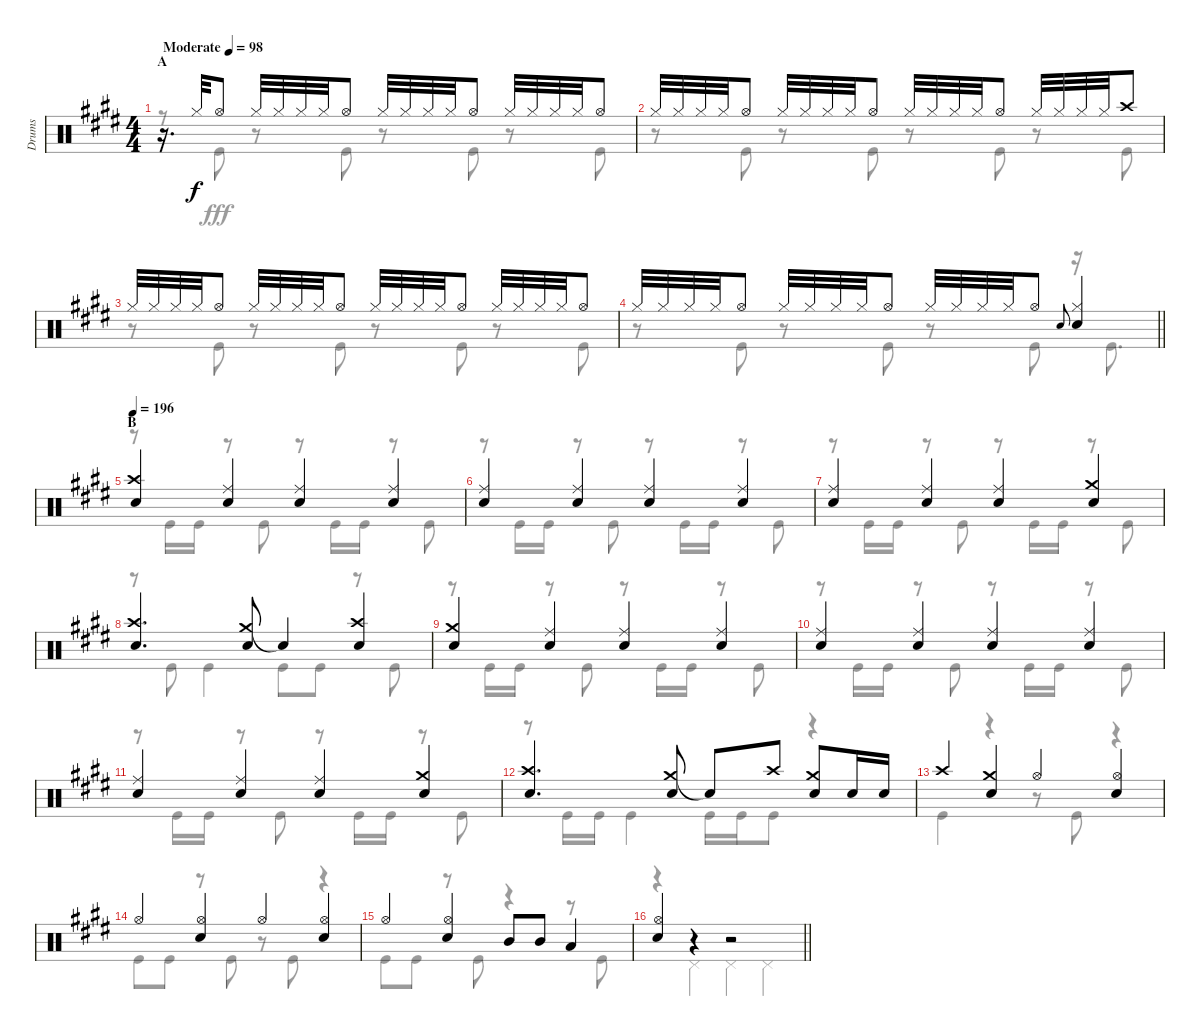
\track ("Drums" "Drums") {instrument percussion}
\staff {score}
\articulation defaults
\voice
\ts (4 4)
\section ("" "A")
\tempo (98 "Moderate")
\clef neutral
\ks e
r.16{d dy f} "Hi-Hat (closed)".32 "Hi-Hat (open)".8 "Hi-Hat (closed)".32 "Hi-Hat (closed)".32 "Hi-Hat (closed)".32 "Hi-Hat (closed)".32 "Hi-Hat (open)".8 "Hi-Hat (closed)".32 "Hi-Hat (closed)".32 "Hi-Hat (closed)".32 "Hi-Hat (closed)".32 "Hi-Hat (open)".8 "Hi-Hat (closed)".32 "Hi-Hat (closed)".32 "Hi-Hat (closed)".32 "Hi-Hat (closed)".32 "Hi-Hat (open)".8 |
"Hi-Hat (closed)".32 "Hi-Hat (closed)".32 "Hi-Hat (closed)".32 "Hi-Hat (closed)".32 "Hi-Hat (open)".8 "Hi-Hat (closed)".32 "Hi-Hat (closed)".32 "Hi-Hat (closed)".32 "Hi-Hat (closed)".32 "Hi-Hat (open)".8 "Hi-Hat (closed)".32 "Hi-Hat (closed)".32 "Hi-Hat (closed)".32 "Hi-Hat (closed)".32 "Hi-Hat (open)".8 "Hi-Hat (closed)".32 "Hi-Hat (closed)".32 "Hi-Hat (closed)".32 "Hi-Hat (closed)".32 "Crash high (hit)".8 |
"Hi-Hat (closed)".32 "Hi-Hat (closed)".32 "Hi-Hat (closed)".32 "Hi-Hat (closed)".32 "Hi-Hat (open)".8 "Hi-Hat (closed)".32 "Hi-Hat (closed)".32 "Hi-Hat (closed)".32 "Hi-Hat (closed)".32 "Hi-Hat (open)".8 "Hi-Hat (closed)".32 "Hi-Hat (closed)".32 "Hi-Hat (closed)".32 "Hi-Hat (closed)".32 "Hi-Hat (open)".8 "Hi-Hat (closed)".32 "Hi-Hat (closed)".32 "Hi-Hat (closed)".32 "Hi-Hat (closed)".32 "Hi-Hat (open)".8 |
\barLineRight lightlight "Hi-Hat (closed)".32 "Hi-Hat (closed)".32 "Hi-Hat (closed)".32 "Hi-Hat (closed)".32 "Hi-Hat (open)".8 "Hi-Hat (closed)".32 "Hi-Hat (closed)".32 "Hi-Hat (closed)".32 "Hi-Hat (closed)".32 "Hi-Hat (open)".8 "Hi-Hat (closed)".32 "Hi-Hat (closed)".32 "Hi-Hat (closed)".32 "Hi-Hat (closed)".32 "Hi-Hat (open)".8 "Snare (hit) 2".8{gr onbeat}
("Hi-Hat (closed)" "Snare (hit) 2").4 |
\section ("" "B")
\tempo 196
("Crash high (hit)" "Snare (hit) 2").4 ("Ride (middle)" "Snare (hit) 2").4 ("Ride (middle)" "Snare (hit) 2").4 ("Ride (middle)" "Snare (hit) 2").4 |
("Ride (middle)" "Snare (hit) 2").4 ("Ride (middle)" "Snare (hit) 2").4 ("Ride (middle)" "Snare (hit) 2").4 ("Ride (middle)" "Snare (hit) 2").4 |
("Ride (middle)" "Snare (hit) 2").4 ("Ride (middle)" "Snare (hit) 2").4 ("Ride (middle)" "Snare (hit) 2").4 ("Crash medium (hit)" "Snare (hit) 2").4 |
("Crash high (hit)" "Snare (hit) 2").4{d} ("Crash medium (hit)" "Snare (hit) 2").8 "Snare (hit)"{t}.4 ("Crash high (hit)" "Snare (hit) 2").4 |
("Crash medium (hit)" "Snare (hit) 2").4 ("Ride (middle)" "Snare (hit) 2").4 ("Ride (middle)" "Snare (hit) 2").4 ("Ride (middle)" "Snare (hit) 2").4 |
("Ride (middle)" "Snare (hit) 2").4 ("Ride (middle)" "Snare (hit) 2").4 ("Ride (middle)" "Snare (hit) 2").4 ("Ride (middle)" "Snare (hit) 2").4 |
("Ride (middle)" "Snare (hit) 2").4 ("Ride (middle)" "Snare (hit) 2").4 ("Ride (middle)" "Snare (hit) 2").4 ("Crash medium (hit)" "Snare (hit) 2").4 |
("Crash high (hit)" "Snare (hit) 2").4{d} ("Crash medium (hit)" "Snare (hit) 2").8 "Snare (hit)"{t}.8 "Crash high (hit)".8 ("Crash medium (hit)" "Snare (hit) 2").8 "Snare (hit) 2".16 "Snare (hit) 2".16 |
"Crash high (hit)".4 ("Crash medium (hit)" "Snare (hit) 2").4 "Hi-Hat (open)".4 ("Hi-Hat (open)" "Snare (hit) 2").4 |
"Hi-Hat (open)".4 ("Hi-Hat (open)" "Snare (hit) 2").4 "Hi-Hat (open)".4 ("Hi-Hat (open)" "Snare (hit) 2").4 |
"Hi-Hat (open)".4 ("Hi-Hat (open)" "Snare (hit) 2").4 "Mid Tom (hit)".8 "Mid Tom (hit)".8 "Low Tom (hit)".4 |
\barLineRight lightlight
("Hi-Hat (open)" "Snare (hit) 2").4 r.4 r.2
\voice
\clef neutral
\ottava regular
\simile none
\ks e
r.8{dy fff} "Kick (hit)".8 r.8 "Kick (hit)".8 r.8 "Kick (hit)".8 r.8 "Kick (hit)".8 |
r.8 "Kick (hit)".8 r.8 "Kick (hit)".8 r.8 "Kick (hit)".8 r.8 "Kick (hit)".8 |
r.8 "Kick (hit)".8 r.8 "Kick (hit)".8 r.8 "Kick (hit)".8 r.8 "Kick (hit)".8 |
\barLineRight lightlight
r.8 "Kick (hit)".8 r.8 "Kick (hit)".8 r.8 "Kick (hit)".8 r.16 "Kick (hit)".8{d} |
r.8 "Kick (hit)".16 "Kick (hit)".16 r.8 "Kick (hit)".8 r.8 "Kick (hit)".16 "Kick (hit)".16 r.8 "Kick (hit)".8 |
r.8 "Kick (hit)".16 "Kick (hit)".16 r.8 "Kick (hit)".8 r.8 "Kick (hit)".16 "Kick (hit)".16 r.8 "Kick (hit)".8 |
r.8 "Kick (hit)".16 "Kick (hit)".16 r.8 "Kick (hit)".8 r.8 "Kick (hit)".16 "Kick (hit)".16 r.8 "Kick (hit)".8 |
r.8 "Kick (hit)".8 "Kick (hit)".4 "Kick (hit)".8 "Kick (hit)".8 r.8 "Kick (hit)".8 |
r.8 "Kick (hit)".16 "Kick (hit)".16 r.8 "Kick (hit)".8 r.8 "Kick (hit)".16 "Kick (hit)".16 r.8 "Kick (hit)".8 |
r.8 "Kick (hit)".16 "Kick (hit)".16 r.8 "Kick (hit)".8 r.8 "Kick (hit)".16 "Kick (hit)".16 r.8 "Kick (hit)".8 |
r.8 "Kick (hit)".16 "Kick (hit)".16 r.8 "Kick (hit)".8 r.8 "Kick (hit)".16 "Kick (hit)".16 r.8 "Kick (hit)".8 |
r.8 "Kick (hit)".16 "Kick (hit)".16 "Kick (hit)".4 "Kick (hit)".16 "Kick (hit)".16 "Kick (hit)".8 r.4 |
"Kick (hit)".4 r.4 r.8 "Kick (hit)".8 r.4 |
"Kick (hit)".8 "Kick (hit)".8 r.8 "Kick (hit)".8 r.8 "Kick (hit)".8 r.4 |
"Kick (hit)".8 "Kick (hit)".8 r.8 "Kick (hit)".8 r.4 r.8 "Kick (hit)".8 |
\barLineRight lightlight
r.4 "Pedal Hi-Hat (hit)".4 "Pedal Hi-Hat (hit)".4 "Pedal Hi-Hat (hit)".4
